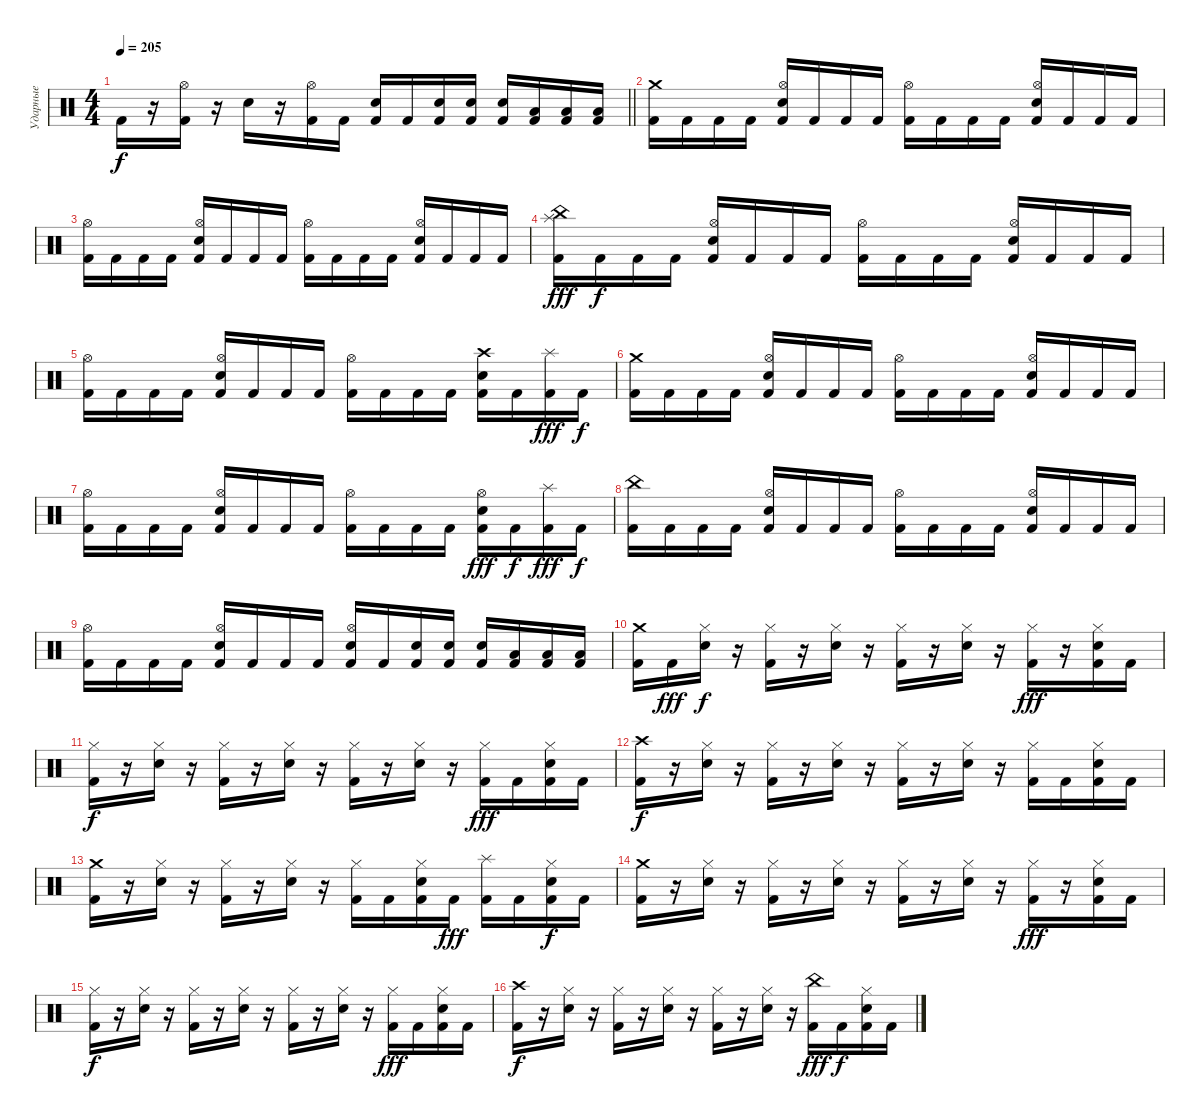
\track ("Ударные" "Ударные") {instrument percussion}
\staff {score}
\articulation defaults
\ts (4 4)
\tempo 205
\clef neutral
\barLineRight lightlight
\ks c "Kick (hit) 2".16{dy f}
r.16 ("Hi-Hat (open)" "Kick (hit) 2").16 r.16 "Snare (hit) 2".16 r.16 ("Hi-Hat (open)" "Kick (hit) 2").16 "Kick (hit) 2".16 ("Snare (hit) 2" "Kick (hit) 2").16 "Kick (hit) 2".16 ("Snare (hit) 2" "Kick (hit) 2").16 ("Snare (hit) 2" "Kick (hit) 2").16 ("Snare (hit) 2" "Kick (hit) 2").16 ("Low Tom (hit)" "Kick (hit) 2").16 ("Low Tom (hit)" "Kick (hit) 2").16 ("Low Tom (hit)" "Kick (hit) 2").16 |
("Crash medium (hit)" "Kick (hit) 2").16 "Kick (hit) 2".16 "Kick (hit) 2".16 "Kick (hit) 2".16 ("Hi-Hat (open)" "Snare (hit) 2" "Kick (hit) 2").16 "Kick (hit) 2".16 "Kick (hit) 2".16 "Kick (hit) 2".16 ("Hi-Hat (open)" "Kick (hit) 2").16 "Kick (hit) 2".16 "Kick (hit) 2".16 "Kick (hit) 2".16 ("Hi-Hat (open)" "Snare (hit) 2" "Kick (hit) 2").16 "Kick (hit) 2".16 "Kick (hit) 2".16 "Kick (hit) 2".16 |
("Hi-Hat (open)" "Kick (hit) 2").16 "Kick (hit) 2".16 "Kick (hit) 2".16 "Kick (hit) 2".16 ("Hi-Hat (open)" "Snare (hit) 2" "Kick (hit) 2").16 "Kick (hit) 2".16 "Kick (hit) 2".16 "Kick (hit) 2".16 ("Hi-Hat (open)" "Kick (hit) 2").16 "Kick (hit) 2".16 "Kick (hit) 2".16 "Kick (hit) 2".16 ("Hi-Hat (open)" "Snare (hit) 2" "Kick (hit) 2").16 "Kick (hit) 2".16 "Kick (hit) 2".16 "Kick (hit) 2".16 |
("China (hit)" "Splash (hit)" "Kick (hit) 2").16{dy fff} "Kick (hit) 2".16{dy f} "Kick (hit) 2".16 "Kick (hit) 2".16 ("Hi-Hat (open)" "Snare (hit) 2" "Kick (hit) 2").16 "Kick (hit) 2".16 "Kick (hit) 2".16 "Kick (hit) 2".16 ("Hi-Hat (open)" "Kick (hit) 2").16 "Kick (hit) 2".16 "Kick (hit) 2".16 "Kick (hit) 2".16 ("Hi-Hat (open)" "Snare (hit) 2" "Kick (hit) 2").16 "Kick (hit) 2".16 "Kick (hit) 2".16 "Kick (hit) 2".16 |
("Hi-Hat (open)" "Kick (hit) 2").16 "Kick (hit) 2".16 "Kick (hit) 2".16 "Kick (hit) 2".16 ("Hi-Hat (open)" "Snare (hit) 2" "Kick (hit) 2").16 "Kick (hit) 2".16 "Kick (hit) 2".16 "Kick (hit) 2".16 ("Hi-Hat (open)" "Kick (hit) 2").16 "Kick (hit) 2".16 "Kick (hit) 2".16 "Kick (hit) 2".16 ("Crash high (hit)" "Snare (hit) 2" "Kick (hit) 2").16 "Kick (hit) 2".16 ("Splash (hit)" "Kick (hit) 2").16{dy fff} "Kick (hit) 2".16{dy f} |
("Crash medium (hit)" "Kick (hit) 2").16 "Kick (hit) 2".16 "Kick (hit) 2".16 "Kick (hit) 2".16 ("Hi-Hat (open)" "Snare (hit) 2" "Kick (hit) 2").16 "Kick (hit) 2".16 "Kick (hit) 2".16 "Kick (hit) 2".16 ("Hi-Hat (open)" "Kick (hit) 2").16 "Kick (hit) 2".16 "Kick (hit) 2".16 "Kick (hit) 2".16 ("Hi-Hat (open)" "Snare (hit) 2" "Kick (hit) 2").16 "Kick (hit) 2".16 "Kick (hit) 2".16 "Kick (hit) 2".16 |
("Hi-Hat (open)" "Kick (hit) 2").16 "Kick (hit) 2".16 "Kick (hit) 2".16 "Kick (hit) 2".16 ("Hi-Hat (open)" "Snare (hit) 2" "Kick (hit) 2").16 "Kick (hit) 2".16 "Kick (hit) 2".16 "Kick (hit) 2".16 ("Hi-Hat (open)" "Kick (hit) 2").16 "Kick (hit) 2".16 "Kick (hit) 2".16 "Kick (hit) 2".16 ("Hi-Hat (open)" "Snare (hit) 2" "Kick (hit) 2").16{dy fff} "Kick (hit) 2".16{dy f} ("Splash (hit)" "Kick (hit) 2").16{dy fff} "Kick (hit) 2".16{dy f} |
("China (hit)" "Kick (hit) 2").16 "Kick (hit) 2".16 "Kick (hit) 2".16 "Kick (hit) 2".16 ("Hi-Hat (open)" "Snare (hit) 2" "Kick (hit) 2").16 "Kick (hit) 2".16 "Kick (hit) 2".16 "Kick (hit) 2".16 ("Hi-Hat (open)" "Kick (hit) 2").16 "Kick (hit) 2".16 "Kick (hit) 2".16 "Kick (hit) 2".16 ("Hi-Hat (open)" "Snare (hit) 2" "Kick (hit) 2").16 "Kick (hit) 2".16 "Kick (hit) 2".16 "Kick (hit) 2".16 |
("Hi-Hat (open)" "Kick (hit) 2").16 "Kick (hit) 2".16 "Kick (hit) 2".16 "Kick (hit) 2".16 ("Hi-Hat (open)" "Snare (hit) 2" "Kick (hit) 2").16 "Kick (hit) 2".16 "Kick (hit) 2".16 "Kick (hit) 2".16 ("Hi-Hat (open)" "Snare (hit) 2" "Kick (hit) 2").16 "Kick (hit) 2".16 ("Snare (hit) 2" "Kick (hit) 2").16 ("Snare (hit) 2" "Kick (hit) 2").16 ("Snare (hit) 2" "Kick (hit) 2").16 ("Low Tom (hit)" "Kick (hit) 2").16 ("Low Tom (hit)" "Kick (hit) 2").16 ("Low Tom (hit)" "Kick (hit) 2").16 |
("Crash medium (hit)" "Kick (hit) 2").16 "Kick (hit) 2".16{dy fff} ("Hi-Hat (closed)" "Snare (hit) 2").16{dy f} r.16 ("Hi-Hat (closed)" "Kick (hit) 2").16 r.16 ("Hi-Hat (closed)" "Snare (hit) 2").16 r.16 ("Hi-Hat (closed)" "Kick (hit) 2").16 r.16 ("Hi-Hat (closed)" "Snare (hit) 2").16 r.16 ("Hi-Hat (closed)" "Kick (hit) 2").16{dy fff} r.16 ("Hi-Hat (closed)" "Snare (hit) 2" "Kick (hit) 2").16 "Kick (hit) 2".16 |
("Hi-Hat (closed)" "Kick (hit) 2").16{dy f} r.16 ("Hi-Hat (closed)" "Snare (hit) 2").16 r.16 ("Hi-Hat (closed)" "Kick (hit) 2").16 r.16 ("Hi-Hat (closed)" "Snare (hit) 2").16 r.16 ("Hi-Hat (closed)" "Kick (hit) 2").16 r.16 ("Hi-Hat (closed)" "Snare (hit) 2").16 r.16 ("Hi-Hat (closed)" "Kick (hit) 2").16{dy fff} "Kick (hit) 2".16 ("Hi-Hat (closed)" "Snare (hit) 2" "Kick (hit) 2").16 "Kick (hit) 2".16 |
("Crash high (hit)" "Kick (hit) 2").16{dy f} r.16 ("Hi-Hat (closed)" "Snare (hit) 2").16 r.16 ("Hi-Hat (closed)" "Kick (hit) 2").16 r.16 ("Hi-Hat (closed)" "Snare (hit) 2").16 r.16 ("Hi-Hat (closed)" "Kick (hit) 2").16 r.16 ("Hi-Hat (closed)" "Snare (hit) 2").16 r.16 ("Hi-Hat (closed)" "Kick (hit) 2").16 "Kick (hit) 2".16 ("Hi-Hat (closed)" "Snare (hit) 2" "Kick (hit) 2").16 "Kick (hit) 2".16 |
("Crash medium (hit)" "Kick (hit) 2").16 r.16 ("Hi-Hat (closed)" "Snare (hit) 2").16 r.16 ("Hi-Hat (closed)" "Kick (hit) 2").16 r.16 ("Hi-Hat (closed)" "Snare (hit) 2").16 r.16 ("Hi-Hat (closed)" "Kick (hit) 2").16 "Kick (hit) 2".16 ("Hi-Hat (closed)" "Snare (hit) 2" "Kick (hit) 2").16 "Kick (hit) 2".16{dy fff} ("Splash (hit)" "Kick (hit) 2").16 "Kick (hit) 2".16 ("Hi-Hat (closed)" "Snare (hit) 2" "Kick (hit) 2").16{dy f} "Kick (hit) 2".16 |
("Crash medium (hit)" "Kick (hit) 2").16 r.16 ("Hi-Hat (closed)" "Snare (hit) 2").16 r.16 ("Hi-Hat (closed)" "Kick (hit) 2").16 r.16 ("Hi-Hat (closed)" "Snare (hit) 2").16 r.16 ("Hi-Hat (closed)" "Kick (hit) 2").16 r.16 ("Hi-Hat (closed)" "Snare (hit) 2").16 r.16 ("Hi-Hat (closed)" "Kick (hit) 2").16{dy fff} r.16 ("Hi-Hat (closed)" "Snare (hit) 2" "Kick (hit) 2").16 "Kick (hit) 2".16 |
("Hi-Hat (closed)" "Kick (hit) 2").16{dy f} r.16 ("Hi-Hat (closed)" "Snare (hit) 2").16 r.16 ("Hi-Hat (closed)" "Kick (hit) 2").16 r.16 ("Hi-Hat (closed)" "Snare (hit) 2").16 r.16 ("Hi-Hat (closed)" "Kick (hit) 2").16 r.16 ("Hi-Hat (closed)" "Snare (hit) 2").16 r.16 ("Hi-Hat (closed)" "Kick (hit) 2").16{dy fff} "Kick (hit) 2".16 ("Hi-Hat (closed)" "Snare (hit) 2" "Kick (hit) 2").16 "Kick (hit) 2".16 |
("Crash high (hit)" "Kick (hit) 2").16{dy f} r.16 ("Hi-Hat (closed)" "Snare (hit) 2").16 r.16 ("Hi-Hat (closed)" "Kick (hit) 2").16 r.16 ("Hi-Hat (closed)" "Snare (hit) 2").16 r.16 ("Hi-Hat (closed)" "Kick (hit) 2").16 r.16 ("Hi-Hat (closed)" "Snare (hit) 2").16 r.16 ("China (hit)" "Kick (hit) 2").16{dy fff} "Kick (hit) 2".16{dy f} ("Hi-Hat (closed)" "Snare (hit) 2" "Kick (hit) 2").16 "Kick (hit) 2".16
